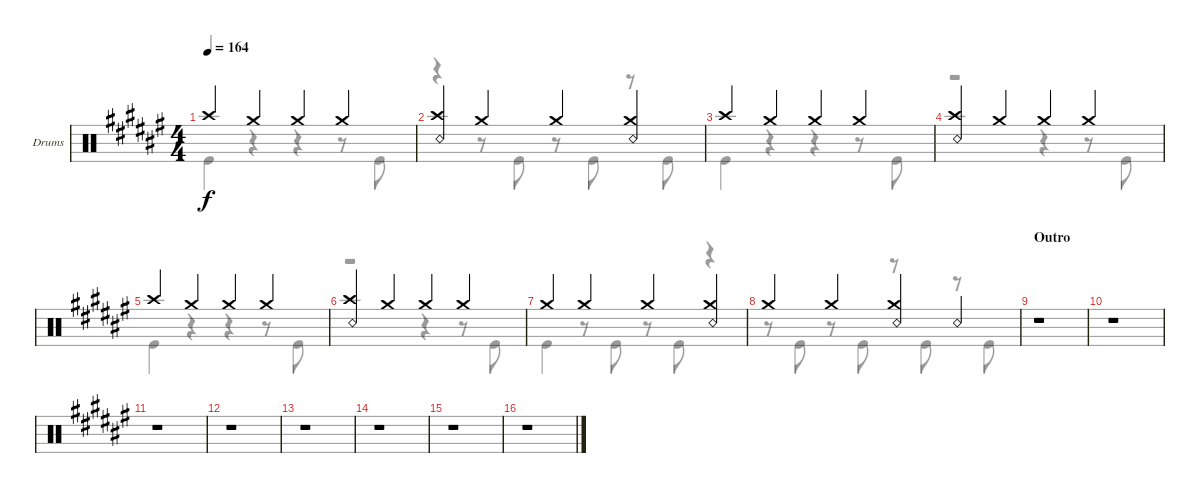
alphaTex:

\defaultSystemsLayout 4
\bracketExtendMode groupsimilarinstruments
\firstSystemTrackNameOrientation horizontal
\otherSystemsTrackNameOrientation horizontal
\track ("Drums" "Drums") {instrument percussion}
\staff {score}
\articulation defaults
\voice
\ts (4 4)
\tempo 164
\clef neutral
\ks f# "Crash high (hit)".4{dy f} "Crash medium (hit)".4 "Crash medium (hit)".4 "Crash medium (hit)".4
|
("Snare (rim shot)" "Crash high (hit)").4 "Crash medium (hit)".4 "Crash medium (hit)".4 ("Crash medium (hit)" "Snare (rim shot)").4 |
"Crash high (hit)".4 "Crash medium (hit)".4 "Crash medium (hit)".4 "Crash medium (hit)".4 |
("Snare (rim shot)" "Crash high (hit)").4 "Crash medium (hit)".4 "Crash medium (hit)".4 "Crash medium (hit)".4 |
"Crash high (hit)".4 "Crash medium (hit)".4 "Crash medium (hit)".4 "Crash medium (hit)".4 |
("Snare (rim shot)" "Crash high (hit)").4 "Crash medium (hit)".4 "Crash medium (hit)".4 "Crash medium (hit)".4 |
"Crash medium (hit)".4 "Crash medium (hit)".4 "Crash medium (hit)".4 ("Crash medium (hit)" "Snare (rim shot)").4 |
"Crash medium (hit)".4 "Crash medium (hit)".4 ("Crash medium (hit)" "Snare (rim shot)").4 "Snare (rim shot)".4 |
\section ("" "Outro")
r.1 |
r.1 |
r.1 |
r.1 |
r.1 |
r.1 |
r.1 |
r.1
\voice
\clef neutral
\ottava regular
\simile none
\ks f# "Kick (hit)".4{dy f}
r.4 r.4 r.8 "Kick (hit)".8 |
r.4 r.8 "Kick (hit)".8 r.8 "Kick (hit)".8 r.8 "Kick (hit)".8 |
"Kick (hit)".4 r.4 r.4 r.8 "Kick (hit)".8 |
r.2 r.4 r.8 "Kick (hit)".8 |
"Kick (hit)".4 r.4 r.4 r.8 "Kick (hit)".8 |
r.2 r.4 r.8 "Kick (hit)".8 |
"Kick (hit)".4 r.8 "Kick (hit)".8 r.8 "Kick (hit)".8 r.4 |
r.8 "Kick (hit)".8 r.8 "Kick (hit)".8 r.8 "Kick (hit)".8 r.8 "Kick (hit)".8 |
r.1 |
r.1 |
r.1 |
r.1 |
r.1 |
r.1 |
r.1 |
r.1
